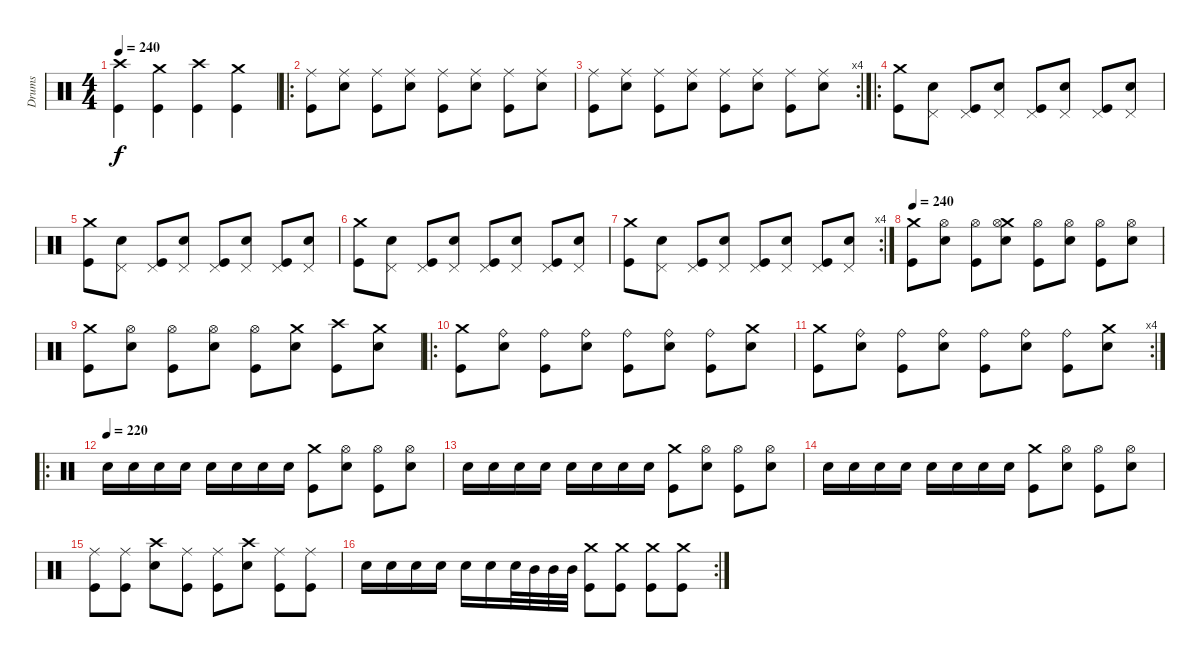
\track ("Drums" "Drums") {instrument percussion}
\staff {score}
\articulation defaults
\ts (4 4)
\tempo 240
\clef neutral
\ks c
("Crash high (hit)" "Kick (hit)").4{dy f} ("Crash medium (hit)" "Kick (hit)").4 ("Crash high (hit)" "Kick (hit)").4 ("Crash medium (hit)" "Kick (hit)").4 |
\ro
("Ride (middle)" "Kick (hit)").8 ("Ride (middle)" "Electric Snare (hit)").8 ("Ride (middle)" "Kick (hit)").8 ("Ride (middle)" "Electric Snare (hit)").8 ("Ride (middle)" "Kick (hit)").8 ("Ride (middle)" "Electric Snare (hit)").8 ("Ride (middle)" "Kick (hit)").8 ("Ride (middle)" "Electric Snare (hit)").8 |
\rc 4
("Ride (middle)" "Kick (hit)").8 ("Ride (middle)" "Electric Snare (hit)").8 ("Ride (middle)" "Kick (hit)").8 ("Ride (middle)" "Electric Snare (hit)").8 ("Ride (middle)" "Kick (hit)").8 ("Ride (middle)" "Electric Snare (hit)").8 ("Ride (middle)" "Kick (hit)").8 ("Ride (middle)" "Electric Snare (hit)").8 |
\ro
("Crash medium (hit)" "Kick (hit)").8 ("Pedal Hi-Hat (hit)" "Electric Snare (hit)").8 ("Pedal Hi-Hat (hit)" "Kick (hit)").8 ("Pedal Hi-Hat (hit)" "Electric Snare (hit)").8 ("Pedal Hi-Hat (hit)" "Kick (hit)").8 ("Pedal Hi-Hat (hit)" "Electric Snare (hit)").8 ("Pedal Hi-Hat (hit)" "Kick (hit)").8 ("Pedal Hi-Hat (hit)" "Electric Snare (hit)").8 |
("Crash medium (hit)" "Kick (hit)").8 ("Pedal Hi-Hat (hit)" "Electric Snare (hit)").8 ("Pedal Hi-Hat (hit)" "Kick (hit)").8 ("Pedal Hi-Hat (hit)" "Electric Snare (hit)").8 ("Pedal Hi-Hat (hit)" "Kick (hit)").8 ("Pedal Hi-Hat (hit)" "Electric Snare (hit)").8 ("Pedal Hi-Hat (hit)" "Kick (hit)").8 ("Pedal Hi-Hat (hit)" "Electric Snare (hit)").8 |
("Crash medium (hit)" "Kick (hit)").8 ("Pedal Hi-Hat (hit)" "Electric Snare (hit)").8 ("Pedal Hi-Hat (hit)" "Kick (hit)").8 ("Pedal Hi-Hat (hit)" "Electric Snare (hit)").8 ("Pedal Hi-Hat (hit)" "Kick (hit)").8 ("Pedal Hi-Hat (hit)" "Electric Snare (hit)").8 ("Pedal Hi-Hat (hit)" "Kick (hit)").8 ("Pedal Hi-Hat (hit)" "Electric Snare (hit)").8 |
\rc 4
("Crash medium (hit)" "Kick (hit)").8 ("Pedal Hi-Hat (hit)" "Electric Snare (hit)").8 ("Pedal Hi-Hat (hit)" "Kick (hit)").8 ("Pedal Hi-Hat (hit)" "Electric Snare (hit)").8 ("Pedal Hi-Hat (hit)" "Kick (hit)").8 ("Pedal Hi-Hat (hit)" "Electric Snare (hit)").8 ("Pedal Hi-Hat (hit)" "Kick (hit)").8 ("Pedal Hi-Hat (hit)" "Electric Snare (hit)").8 |
\tempo 240
("Crash medium (hit)" "Kick (hit)").8 ("Hi-Hat (open)" "Electric Snare (hit)").8 ("Hi-Hat (open)" "Kick (hit)").8 ("Crash medium (hit)" "Hi-Hat (open)" "Electric Snare (hit)").8 ("Hi-Hat (open)" "Kick (hit)").8 ("Hi-Hat (open)" "Electric Snare (hit)").8 ("Hi-Hat (open)" "Kick (hit)").8 ("Hi-Hat (open)" "Electric Snare (hit)").8 |
("Crash medium (hit)" "Kick (hit)").8 ("Hi-Hat (open)" "Electric Snare (hit)").8 ("Hi-Hat (open)" "Kick (hit)").8 ("Hi-Hat (open)" "Electric Snare (hit)").8 ("Hi-Hat (open)" "Kick (hit)").8 ("Crash medium (hit)" "Electric Snare (hit)").8 ("Crash high (hit)" "Kick (hit)").8 ("Crash medium (hit)" "Electric Snare (hit)").8 |
\ro
("Crash medium (hit)" "Kick (hit)").8 ("Ride (bell)" "Electric Snare (hit)").8 ("Ride (bell)" "Kick (hit)").8 ("Ride (bell)" "Electric Snare (hit)").8 ("Ride (bell)" "Kick (hit)").8 ("Ride (bell)" "Electric Snare (hit)").8 ("Ride (bell)" "Kick (hit)").8 ("Crash medium (hit)" "Electric Snare (hit)").8 |
\rc 4
("Crash medium (hit)" "Kick (hit)").8 ("Ride (bell)" "Electric Snare (hit)").8 ("Ride (bell)" "Kick (hit)").8 ("Ride (bell)" "Electric Snare (hit)").8 ("Ride (bell)" "Kick (hit)").8 ("Ride (bell)" "Electric Snare (hit)").8 ("Ride (bell)" "Kick (hit)").8 ("Crash medium (hit)" "Electric Snare (hit)").8 |
\ro
\tempo (220)
"Electric Snare (hit)".16 "Electric Snare (hit)".16 "Electric Snare (hit)".16 "Electric Snare (hit)".16 "Electric Snare (hit)".16 "Electric Snare (hit)".16 "Electric Snare (hit)".16 "Electric Snare (hit)".16 ("Crash medium (hit)" "Kick (hit)").8 ("Hi-Hat (open)" "Electric Snare (hit)").8 ("Hi-Hat (open)" "Kick (hit)").8 ("Hi-Hat (open)" "Electric Snare (hit)").8 |
"Electric Snare (hit)".16 "Electric Snare (hit)".16 "Electric Snare (hit)".16 "Electric Snare (hit)".16 "Electric Snare (hit)".16 "Electric Snare (hit)".16 "Electric Snare (hit)".16 "Electric Snare (hit)".16 ("Crash medium (hit)" "Kick (hit)").8 ("Hi-Hat (open)" "Electric Snare (hit)").8 ("Hi-Hat (open)" "Kick (hit)").8 ("Hi-Hat (open)" "Electric Snare (hit)").8 |
"Electric Snare (hit)".16 "Electric Snare (hit)".16 "Electric Snare (hit)".16 "Electric Snare (hit)".16 "Electric Snare (hit)".16 "Electric Snare (hit)".16 "Electric Snare (hit)".16 "Electric Snare (hit)".16 ("Crash medium (hit)" "Kick (hit)").8 ("Hi-Hat (open)" "Electric Snare (hit)").8 ("Hi-Hat (open)" "Kick (hit)").8 ("Hi-Hat (open)" "Electric Snare (hit)").8 |
("Ride (middle)" "Kick (hit)").8 ("Ride (middle)" "Kick (hit)").8 ("Crash high (hit)" "Electric Snare (hit)").8 ("Ride (middle)" "Kick (hit)").8 ("Ride (middle)" "Kick (hit)").8 ("Crash high (hit)" "Electric Snare (hit)").8 ("Ride (middle)" "Kick (hit)").8 ("Ride (middle)" "Kick (hit)").8 |
\rc 2 "Electric Snare (hit)".16 "Electric Snare (hit)".16 "Electric Snare (hit)".16 "Electric Snare (hit)".16 "Electric Snare (hit)".16 "Electric Snare (hit)".16 "Electric Snare (hit)".32 "Mid Tom (hit)".32 "Mid Tom (hit)".32 "Mid Tom (hit)".32
("Kick (hit)" "Crash medium (hit)").8 ("Kick (hit)" "Crash medium (hit)").8 ("Kick (hit)" "Crash medium (hit)").8 ("Kick (hit)" "Crash medium (hit)").8
